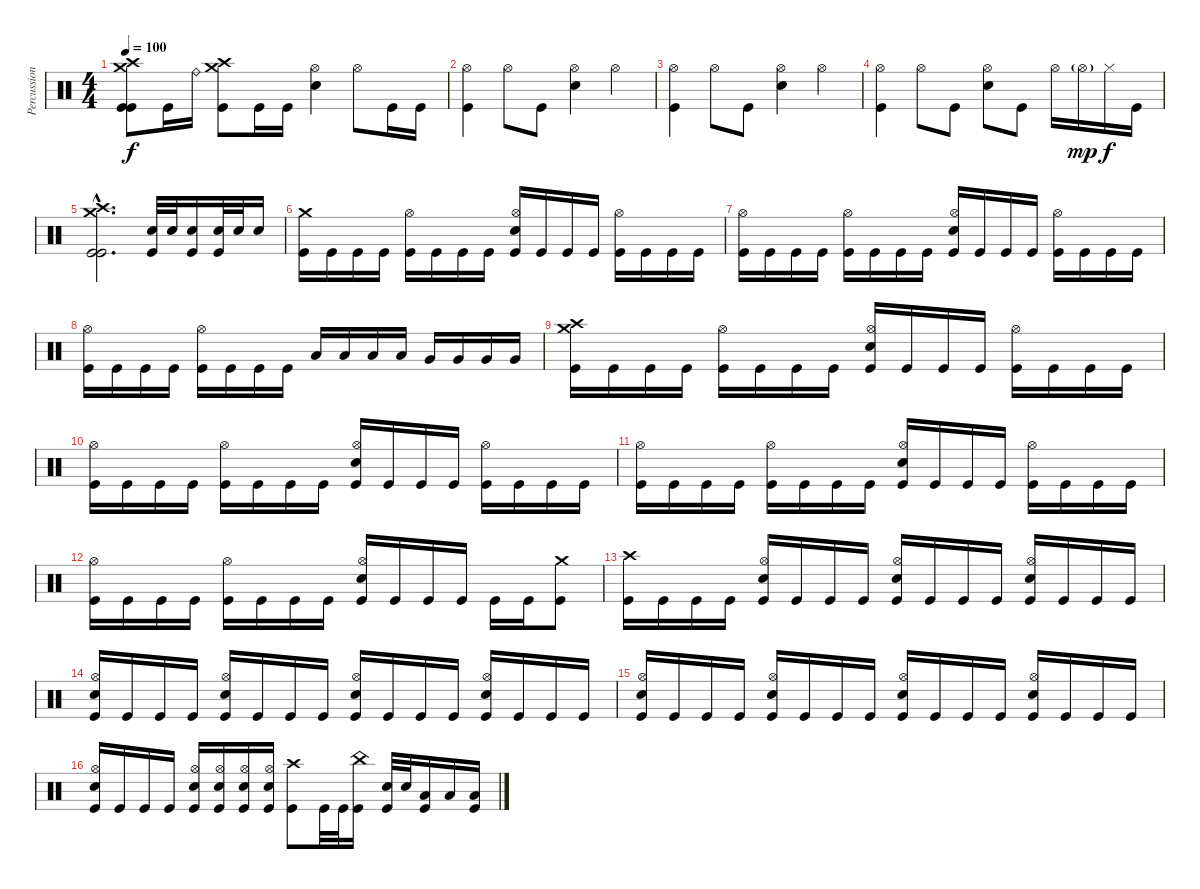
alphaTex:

\track ("Percussion" "Percussion") {instrument percussion}
\staff {score}
\articulation defaults
\ts (4 4)
\tempo 100
\clef neutral
\ks c
("Crash high (hit)" "Crash medium (hit)" "Kick (hit)" "Kick (hit)").8{dy f} "Kick (hit)".16 "Ride (bell)".16 ("Crash high (hit)" "Crash medium (hit)" "Kick (hit)").8 "Kick (hit)".16 "Kick (hit)".16 ("Hi-Hat (open)" "Snare (hit) 2").4 "Hi-Hat (open)".8 "Kick (hit)".16 "Kick (hit)".16 |
("Hi-Hat (open)" "Kick (hit)").4 "Hi-Hat (open)".8 "Kick (hit)".8 ("Hi-Hat (open)" "Snare (hit) 2").4 "Hi-Hat (open)".4 |
("Hi-Hat (open)" "Kick (hit)").4 "Hi-Hat (open)".8 "Kick (hit)".8 ("Hi-Hat (open)" "Snare (hit) 2").4 "Hi-Hat (open)".4 |
("Hi-Hat (open)" "Kick (hit)").4 "Hi-Hat (open)".8 "Kick (hit)".8 ("Hi-Hat (open)" "Snare (hit) 2").8 "Kick (hit)".8 "Hi-Hat (open)".16 "Hi-Hat (open)"{g}.16{dy mp} "Hi-Hat (closed)".16{dy f} "Kick (hit)".16 |
("Crash high (hit)"{hac} "Crash medium (hit)"{hac} "Kick (hit)"{hac} "Kick (hit)"{hac}).2{d} ("Snare (hit) 2" "Kick (hit)").32 "Snare (hit) 2".32 ("Snare (hit) 2" "Kick (hit)").16 ("Snare (hit) 2" "Kick (hit)").32 "Snare (hit) 2".32 "Snare (hit) 2".16 |
("Crash medium (hit)" "Kick (hit)").16 "Kick (hit)".16 "Kick (hit)".16 "Kick (hit)".16 ("Hi-Hat (open)" "Kick (hit)").16 "Kick (hit)".16 "Kick (hit)".16 "Kick (hit)".16 ("Hi-Hat (open)" "Snare (hit) 2" "Kick (hit)").16 "Kick (hit)".16 "Kick (hit)".16 "Kick (hit)".16 ("Hi-Hat (open)" "Kick (hit)").16 "Kick (hit)".16 "Kick (hit)".16 "Kick (hit)".16 |
("Hi-Hat (open)" "Kick (hit)").16 "Kick (hit)".16 "Kick (hit)".16 "Kick (hit)".16 ("Hi-Hat (open)" "Kick (hit)").16 "Kick (hit)".16 "Kick (hit)".16 "Kick (hit)".16 ("Hi-Hat (open)" "Snare (hit) 2" "Kick (hit)").16 "Kick (hit)".16 "Kick (hit)".16 "Kick (hit)".16 ("Hi-Hat (open)" "Kick (hit)").16 "Kick (hit)".16 "Kick (hit)".16 "Kick (hit)".16 |
("Hi-Hat (open)" "Kick (hit)").16 "Kick (hit)".16 "Kick (hit)".16 "Kick (hit)".16 ("Hi-Hat (open)" "Kick (hit)").16 "Kick (hit)".16 "Kick (hit)".16 "Kick (hit)".16 "Low Tom (hit)".16 "Low Tom (hit)".16 "Low Tom (hit)".16 "Low Tom (hit)".16 "Very Low Tom (hit)".16 "Very Low Tom (hit)".16 "Very Low Tom (hit)".16 "Very Low Tom (hit)".16 |
("Crash high (hit)" "Crash medium (hit)" "Kick (hit)").16 "Kick (hit)".16 "Kick (hit)".16 "Kick (hit)".16 ("Hi-Hat (open)" "Kick (hit)").16 "Kick (hit)".16 "Kick (hit)".16 "Kick (hit)".16 ("Hi-Hat (open)" "Snare (hit) 2" "Kick (hit)").16 "Kick (hit)".16 "Kick (hit)".16 "Kick (hit)".16 ("Hi-Hat (open)" "Kick (hit)").16 "Kick (hit)".16 "Kick (hit)".16 "Kick (hit)".16 |
("Hi-Hat (open)" "Kick (hit)").16 "Kick (hit)".16 "Kick (hit)".16 "Kick (hit)".16 ("Hi-Hat (open)" "Kick (hit)").16 "Kick (hit)".16 "Kick (hit)".16 "Kick (hit)".16 ("Hi-Hat (open)" "Snare (hit) 2" "Kick (hit)").16 "Kick (hit)".16 "Kick (hit)".16 "Kick (hit)".16 ("Hi-Hat (open)" "Kick (hit)").16 "Kick (hit)".16 "Kick (hit)".16 "Kick (hit)".16 |
("Hi-Hat (open)" "Kick (hit)").16 "Kick (hit)".16 "Kick (hit)".16 "Kick (hit)".16 ("Hi-Hat (open)" "Kick (hit)").16 "Kick (hit)".16 "Kick (hit)".16 "Kick (hit)".16 ("Hi-Hat (open)" "Snare (hit) 2" "Kick (hit)").16 "Kick (hit)".16 "Kick (hit)".16 "Kick (hit)".16 ("Hi-Hat (open)" "Kick (hit)").16 "Kick (hit)".16 "Kick (hit)".16 "Kick (hit)".16 |
("Hi-Hat (open)" "Kick (hit)").16 "Kick (hit)".16 "Kick (hit)".16 "Kick (hit)".16 ("Hi-Hat (open)" "Kick (hit)").16 "Kick (hit)".16 "Kick (hit)".16 "Kick (hit)".16 ("Hi-Hat (open)" "Snare (hit) 2" "Kick (hit)").16 "Kick (hit)".16 "Kick (hit)".16 "Kick (hit)".16 "Kick (hit)".16 "Kick (hit)".16 ("Crash medium (hit)" "Kick (hit)").8 |
("Crash high (hit)" "Kick (hit)").16 "Kick (hit)".16 "Kick (hit)".16 "Kick (hit)".16 ("Hi-Hat (open)" "Snare (hit) 2" "Kick (hit)").16 "Kick (hit)".16 "Kick (hit)".16 "Kick (hit)".16 ("Hi-Hat (open)" "Snare (hit) 2" "Kick (hit)").16 "Kick (hit)".16 "Kick (hit)".16 "Kick (hit)".16 ("Hi-Hat (open)" "Snare (hit) 2" "Kick (hit)").16 "Kick (hit)".16 "Kick (hit)".16 "Kick (hit)".16 |
("Hi-Hat (open)" "Snare (hit) 2" "Kick (hit)").16 "Kick (hit)".16 "Kick (hit)".16 "Kick (hit)".16 ("Hi-Hat (open)" "Snare (hit) 2" "Kick (hit)").16 "Kick (hit)".16 "Kick (hit)".16 "Kick (hit)".16 ("Hi-Hat (open)" "Snare (hit) 2" "Kick (hit)").16 "Kick (hit)".16 "Kick (hit)".16 "Kick (hit)".16 ("Hi-Hat (open)" "Snare (hit) 2" "Kick (hit)").16 "Kick (hit)".16 "Kick (hit)".16 "Kick (hit)".16 |
("Hi-Hat (open)" "Snare (hit) 2" "Kick (hit)").16 "Kick (hit)".16 "Kick (hit)".16 "Kick (hit)".16 ("Hi-Hat (open)" "Snare (hit) 2" "Kick (hit)").16 "Kick (hit)".16 "Kick (hit)".16 "Kick (hit)".16 ("Hi-Hat (open)" "Snare (hit) 2" "Kick (hit)").16 "Kick (hit)".16 "Kick (hit)".16 "Kick (hit)".16 ("Hi-Hat (open)" "Snare (hit) 2" "Kick (hit)").16 "Kick (hit)".16 "Kick (hit)".16 "Kick (hit)".16 |
("Hi-Hat (open)" "Snare (hit) 2" "Kick (hit)").16 "Kick (hit)".16 "Kick (hit)".16 "Kick (hit)".16 ("Hi-Hat (open)" "Snare (hit) 2" "Kick (hit)").16 ("Hi-Hat (open)" "Snare (hit) 2" "Kick (hit)").16 ("Hi-Hat (open)" "Snare (hit) 2" "Kick (hit)").16 ("Hi-Hat (open)" "Snare (hit) 2" "Kick (hit)").16 ("Crash high (hit)" "Kick (hit)").8 "Kick (hit)".32 "Kick (hit)".32 ("China (hit)" "Kick (hit)").16 ("Snare (hit) 2" "Kick (hit)").32 "Snare (hit) 2".32 ("Low Tom (hit)" "Kick (hit)").16 "Low Tom (hit)".16 ("Low Tom (hit)" "Kick (hit)").16
